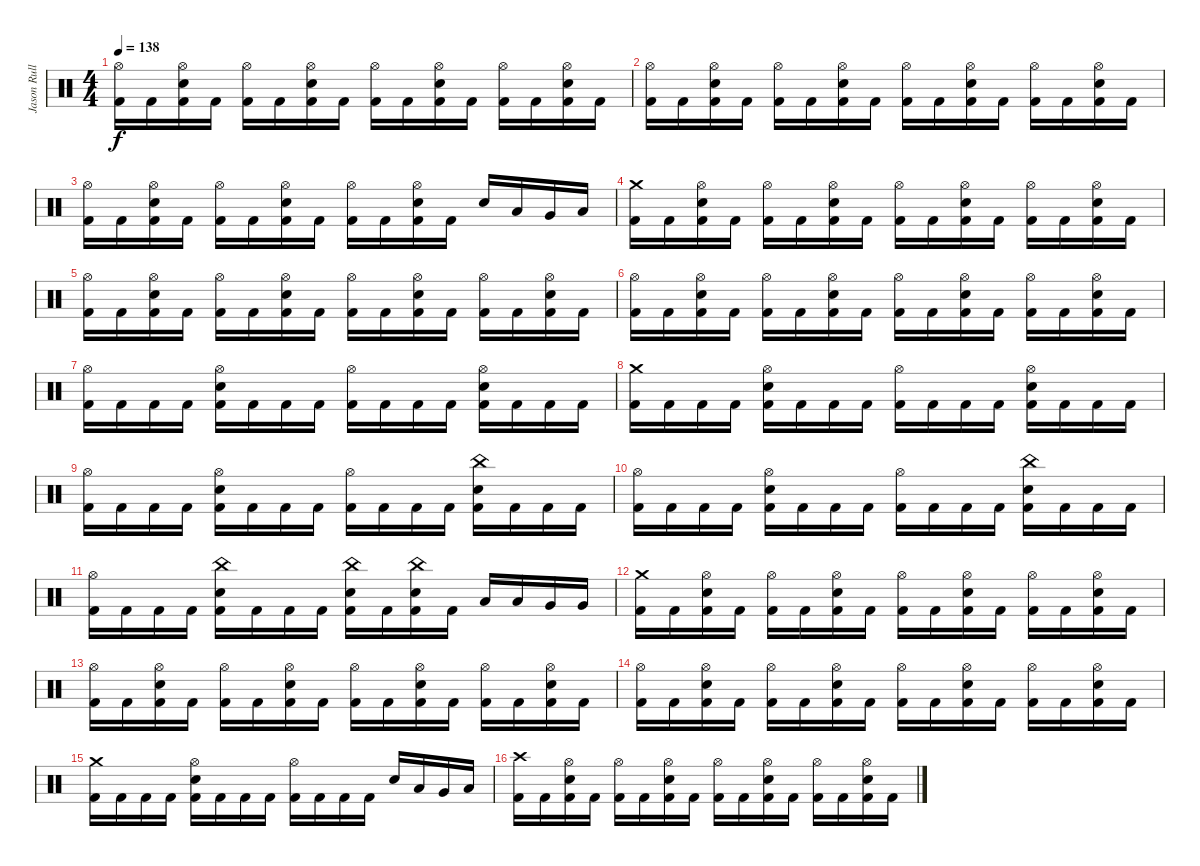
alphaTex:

\track ("Jason Rullo" "Jason Rull") {instrument percussion}
\staff {score}
\articulation defaults
\ts (4 4)
\tempo 138
\clef neutral
\ks c
("Hi-Hat (open)" "Kick (hit) 2").16{dy f} "Kick (hit) 2".16 ("Hi-Hat (open)" "Electric Snare (hit)" "Kick (hit) 2").16 "Kick (hit) 2".16 ("Hi-Hat (open)" "Kick (hit) 2").16 "Kick (hit) 2".16 ("Hi-Hat (open)" "Electric Snare (hit)" "Kick (hit) 2").16 "Kick (hit) 2".16 ("Hi-Hat (open)" "Kick (hit) 2").16 "Kick (hit) 2".16 ("Hi-Hat (open)" "Electric Snare (hit)" "Kick (hit) 2").16 "Kick (hit) 2".16 ("Hi-Hat (open)" "Kick (hit) 2").16 "Kick (hit) 2".16 ("Hi-Hat (open)" "Electric Snare (hit)" "Kick (hit) 2").16 "Kick (hit) 2".16 |
("Hi-Hat (open)" "Kick (hit) 2").16 "Kick (hit) 2".16 ("Hi-Hat (open)" "Electric Snare (hit)" "Kick (hit) 2").16 "Kick (hit) 2".16 ("Hi-Hat (open)" "Kick (hit) 2").16 "Kick (hit) 2".16 ("Hi-Hat (open)" "Electric Snare (hit)" "Kick (hit) 2").16 "Kick (hit) 2".16 ("Hi-Hat (open)" "Kick (hit) 2").16 "Kick (hit) 2".16 ("Hi-Hat (open)" "Electric Snare (hit)" "Kick (hit) 2").16 "Kick (hit) 2".16 ("Hi-Hat (open)" "Kick (hit) 2").16 "Kick (hit) 2".16 ("Hi-Hat (open)" "Electric Snare (hit)" "Kick (hit) 2").16 "Kick (hit) 2".16 |
("Hi-Hat (open)" "Kick (hit) 2").16 "Kick (hit) 2".16 ("Hi-Hat (open)" "Electric Snare (hit)" "Kick (hit) 2").16 "Kick (hit) 2".16 ("Hi-Hat (open)" "Kick (hit) 2").16 "Kick (hit) 2".16 ("Hi-Hat (open)" "Electric Snare (hit)" "Kick (hit) 2").16 "Kick (hit) 2".16 ("Hi-Hat (open)" "Kick (hit) 2").16 "Kick (hit) 2".16 ("Hi-Hat (open)" "Electric Snare (hit)" "Kick (hit) 2").16 "Kick (hit) 2".16 "Electric Snare (hit)".16 "Low Tom (hit)".16 "Very Low Tom (hit)".16 "Low Floor Tom (hit)".16 |
("Crash medium (hit)" "Kick (hit) 2").16 "Kick (hit) 2".16 ("Hi-Hat (open)" "Electric Snare (hit)" "Kick (hit) 2").16 "Kick (hit) 2".16 ("Hi-Hat (open)" "Kick (hit) 2").16 "Kick (hit) 2".16 ("Hi-Hat (open)" "Electric Snare (hit)" "Kick (hit) 2").16 "Kick (hit) 2".16 ("Hi-Hat (open)" "Kick (hit) 2").16 "Kick (hit) 2".16 ("Hi-Hat (open)" "Electric Snare (hit)" "Kick (hit) 2").16 "Kick (hit) 2".16 ("Hi-Hat (open)" "Kick (hit) 2").16 "Kick (hit) 2".16 ("Hi-Hat (open)" "Electric Snare (hit)" "Kick (hit) 2").16 "Kick (hit) 2".16 |
("Hi-Hat (open)" "Kick (hit) 2").16 "Kick (hit) 2".16 ("Hi-Hat (open)" "Electric Snare (hit)" "Kick (hit) 2").16 "Kick (hit) 2".16 ("Hi-Hat (open)" "Kick (hit) 2").16 "Kick (hit) 2".16 ("Hi-Hat (open)" "Electric Snare (hit)" "Kick (hit) 2").16 "Kick (hit) 2".16 ("Hi-Hat (open)" "Kick (hit) 2").16 "Kick (hit) 2".16 ("Hi-Hat (open)" "Electric Snare (hit)" "Kick (hit) 2").16 "Kick (hit) 2".16 ("Hi-Hat (open)" "Kick (hit) 2").16 "Kick (hit) 2".16 ("Hi-Hat (open)" "Electric Snare (hit)" "Kick (hit) 2").16 "Kick (hit) 2".16 |
("Hi-Hat (open)" "Kick (hit) 2").16 "Kick (hit) 2".16 ("Hi-Hat (open)" "Electric Snare (hit)" "Kick (hit) 2").16 "Kick (hit) 2".16 ("Hi-Hat (open)" "Kick (hit) 2").16 "Kick (hit) 2".16 ("Hi-Hat (open)" "Electric Snare (hit)" "Kick (hit) 2").16 "Kick (hit) 2".16 ("Hi-Hat (open)" "Kick (hit) 2").16 "Kick (hit) 2".16 ("Hi-Hat (open)" "Electric Snare (hit)" "Kick (hit) 2").16 "Kick (hit) 2".16 ("Hi-Hat (open)" "Kick (hit) 2").16 "Kick (hit) 2".16 ("Hi-Hat (open)" "Electric Snare (hit)" "Kick (hit) 2").16 "Kick (hit) 2".16 |
("Hi-Hat (open)" "Kick (hit) 2").16 "Kick (hit) 2".16 "Kick (hit) 2".16 "Kick (hit) 2".16 ("Electric Snare (hit)" "Hi-Hat (open)" "Kick (hit) 2").16 "Kick (hit) 2".16 "Kick (hit) 2".16 "Kick (hit) 2".16 ("Hi-Hat (open)" "Kick (hit) 2").16 "Kick (hit) 2".16 "Kick (hit) 2".16 "Kick (hit) 2".16 ("Hi-Hat (open)" "Kick (hit) 2" "Electric Snare (hit)").16 "Kick (hit) 2".16 "Kick (hit) 2".16 "Kick (hit) 2".16 |
("Kick (hit) 2" "Crash medium (hit)").16 "Kick (hit) 2".16 "Kick (hit) 2".16 "Kick (hit) 2".16 ("Hi-Hat (open)" "Electric Snare (hit)" "Kick (hit) 2").16 "Kick (hit) 2".16 "Kick (hit) 2".16 "Kick (hit) 2".16 ("Hi-Hat (open)" "Kick (hit) 2").16 "Kick (hit) 2".16 "Kick (hit) 2".16 "Kick (hit) 2".16 ("Hi-Hat (open)" "Electric Snare (hit)" "Kick (hit) 2").16 "Kick (hit) 2".16 "Kick (hit) 2".16 "Kick (hit) 2".16 |
("Hi-Hat (open)" "Kick (hit) 2").16 "Kick (hit) 2".16 "Kick (hit) 2".16 "Kick (hit) 2".16 ("Hi-Hat (open)" "Electric Snare (hit)" "Kick (hit) 2").16 "Kick (hit) 2".16 "Kick (hit) 2".16 "Kick (hit) 2".16 ("Hi-Hat (open)" "Kick (hit) 2").16 "Kick (hit) 2".16 "Kick (hit) 2".16 "Kick (hit) 2".16 ("China (hit)" "Electric Snare (hit)" "Kick (hit) 2").16 "Kick (hit) 2".16 "Kick (hit) 2".16 "Kick (hit) 2".16 |
("Hi-Hat (open)" "Kick (hit) 2").16 "Kick (hit) 2".16 "Kick (hit) 2".16 "Kick (hit) 2".16 ("Hi-Hat (open)" "Electric Snare (hit)" "Kick (hit) 2").16 "Kick (hit) 2".16 "Kick (hit) 2".16 "Kick (hit) 2".16 ("Hi-Hat (open)" "Kick (hit) 2").16 "Kick (hit) 2".16 "Kick (hit) 2".16 "Kick (hit) 2".16 ("China (hit)" "Electric Snare (hit)" "Kick (hit) 2").16 "Kick (hit) 2".16 "Kick (hit) 2".16 "Kick (hit) 2".16 |
("Hi-Hat (open)" "Kick (hit) 2").16 "Kick (hit) 2".16 "Kick (hit) 2".16 "Kick (hit) 2".16 ("China (hit)" "Electric Snare (hit)" "Kick (hit) 2").16 "Kick (hit) 2".16 "Kick (hit) 2".16 "Kick (hit) 2".16 ("China (hit)" "Electric Snare (hit)" "Kick (hit) 2").16 "Kick (hit) 2".16 ("China (hit)" "Electric Snare (hit)" "Kick (hit) 2").16 "Kick (hit) 2".16 "Low Tom (hit)".16 "Low Tom (hit)".16 "Very Low Tom (hit)".16 "Very Low Tom (hit)".16 |
("Crash medium (hit)" "Kick (hit) 2").16 "Kick (hit) 2".16 ("Hi-Hat (open)" "Electric Snare (hit)" "Kick (hit) 2").16 "Kick (hit) 2".16 ("Hi-Hat (open)" "Kick (hit) 2").16 "Kick (hit) 2".16 ("Hi-Hat (open)" "Electric Snare (hit)" "Kick (hit) 2").16 "Kick (hit) 2".16 ("Hi-Hat (open)" "Kick (hit) 2").16 "Kick (hit) 2".16 ("Hi-Hat (open)" "Electric Snare (hit)" "Kick (hit) 2").16 "Kick (hit) 2".16 ("Hi-Hat (open)" "Kick (hit) 2").16 "Kick (hit) 2".16 ("Hi-Hat (open)" "Electric Snare (hit)" "Kick (hit) 2").16 "Kick (hit) 2".16 |
("Hi-Hat (open)" "Kick (hit) 2").16 "Kick (hit) 2".16 ("Hi-Hat (open)" "Electric Snare (hit)" "Kick (hit) 2").16 "Kick (hit) 2".16 ("Hi-Hat (open)" "Kick (hit) 2").16 "Kick (hit) 2".16 ("Hi-Hat (open)" "Electric Snare (hit)" "Kick (hit) 2").16 "Kick (hit) 2".16 ("Hi-Hat (open)" "Kick (hit) 2").16 "Kick (hit) 2".16 ("Hi-Hat (open)" "Electric Snare (hit)" "Kick (hit) 2").16 "Kick (hit) 2".16 ("Hi-Hat (open)" "Kick (hit) 2").16 "Kick (hit) 2".16 ("Hi-Hat (open)" "Electric Snare (hit)" "Kick (hit) 2").16 "Kick (hit) 2".16 |
("Hi-Hat (open)" "Kick (hit) 2").16 "Kick (hit) 2".16 ("Hi-Hat (open)" "Electric Snare (hit)" "Kick (hit) 2").16 "Kick (hit) 2".16 ("Hi-Hat (open)" "Kick (hit) 2").16 "Kick (hit) 2".16 ("Hi-Hat (open)" "Electric Snare (hit)" "Kick (hit) 2").16 "Kick (hit) 2".16 ("Hi-Hat (open)" "Kick (hit) 2").16 "Kick (hit) 2".16 ("Hi-Hat (open)" "Electric Snare (hit)" "Kick (hit) 2").16 "Kick (hit) 2".16 ("Hi-Hat (open)" "Kick (hit) 2").16 "Kick (hit) 2".16 ("Hi-Hat (open)" "Electric Snare (hit)" "Kick (hit) 2").16 "Kick (hit) 2".16 |
("Crash medium (hit)" "Kick (hit) 2").16 "Kick (hit) 2".16 "Kick (hit) 2".16 "Kick (hit) 2".16 ("Hi-Hat (open)" "Electric Snare (hit)" "Kick (hit) 2").16 "Kick (hit) 2".16 "Kick (hit) 2".16 "Kick (hit) 2".16 ("Hi-Hat (open)" "Kick (hit) 2").16 "Kick (hit) 2".16 "Kick (hit) 2".16 "Kick (hit) 2".16 "Electric Snare (hit)".16 "Low Tom (hit)".16 "Very Low Tom (hit)".16 "Low Floor Tom (hit)".16 |
("Crash high (hit)" "Kick (hit) 2").16 "Kick (hit) 2".16 ("Hi-Hat (open)" "Electric Snare (hit)" "Kick (hit) 2").16 "Kick (hit) 2".16 ("Hi-Hat (open)" "Kick (hit) 2").16 "Kick (hit) 2".16 ("Hi-Hat (open)" "Electric Snare (hit)" "Kick (hit) 2").16 "Kick (hit) 2".16 ("Hi-Hat (open)" "Kick (hit) 2").16 "Kick (hit) 2".16 ("Hi-Hat (open)" "Electric Snare (hit)" "Kick (hit) 2").16 "Kick (hit) 2".16 ("Hi-Hat (open)" "Kick (hit) 2").16 "Kick (hit) 2".16 ("Hi-Hat (open)" "Electric Snare (hit)" "Kick (hit) 2").16 "Kick (hit) 2".16
